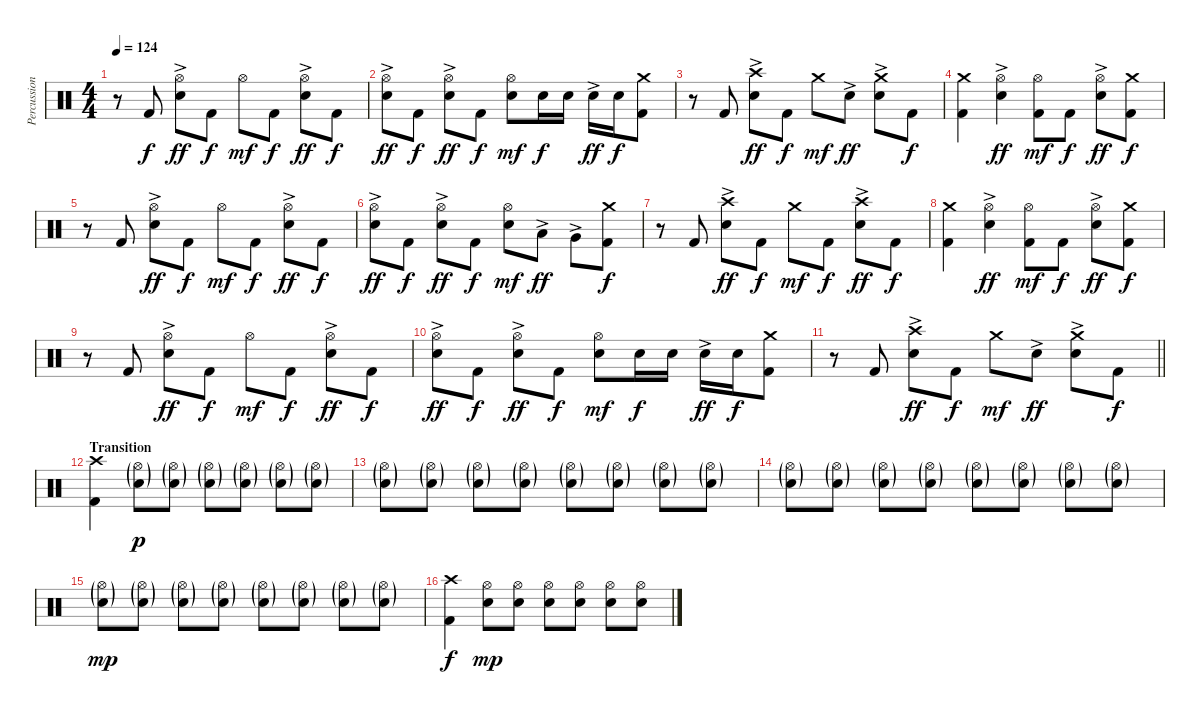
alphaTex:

\track ("Percussion" "Percussion") {instrument percussion}
\staff {score}
\articulation defaults
\ts (4 4)
\tempo 124
\clef neutral
\ks c
r.8{dy f} "Kick (hit) 2".8 ("Hi-Hat (open)" "Electric Snare (hit)"{ac}).8{dy ff} "Kick (hit) 2".8{dy f} "Hi-Hat (open)".8{dy mf} "Kick (hit) 2".8{dy f} ("Hi-Hat (open)" "Electric Snare (hit)"{ac}).8{dy ff} "Kick (hit) 2".8{dy f} |
("Hi-Hat (open)" "Electric Snare (hit)"{ac}).8{dy ff} "Kick (hit) 2".8{dy f} ("Hi-Hat (open)" "Electric Snare (hit)"{ac}).8{dy ff} "Kick (hit) 2".8{dy f} ("Hi-Hat (open)" "Electric Snare (hit)").8{dy mf} "Electric Snare (hit)".16{dy f} "Electric Snare (hit)".16 "Electric Snare (hit)"{ac}.16{dy ff} "Electric Snare (hit)".16{dy f} ("Crash medium (hit)" "Kick (hit) 2").8 |
r.8 "Kick (hit) 2".8 ("Crash high (hit)" "Electric Snare (hit)"{ac}).8{dy ff} "Kick (hit) 2".8{dy f} "Crash medium (hit)".8{dy mf} "Electric Snare (hit)"{ac}.8{dy ff} ("Crash medium (hit)" "Electric Snare (hit)"{ac}).8 "Kick (hit) 2".8{dy f} |
("Crash medium (hit)" "Kick (hit) 2").4 ("Hi-Hat (open)" "Electric Snare (hit)"{ac}).4{dy ff} ("Hi-Hat (open)" "Kick (hit) 2").8{dy mf} "Kick (hit) 2".8{dy f} ("Hi-Hat (open)" "Electric Snare (hit)"{ac}).8{dy ff} ("Crash medium (hit)" "Kick (hit) 2").8{dy f} |
r.8 "Kick (hit) 2".8 ("Hi-Hat (open)" "Electric Snare (hit)"{ac}).8{dy ff} "Kick (hit) 2".8{dy f} "Hi-Hat (open)".8{dy mf} "Kick (hit) 2".8{dy f} ("Hi-Hat (open)" "Electric Snare (hit)"{ac}).8{dy ff} "Kick (hit) 2".8{dy f} |
("Hi-Hat (open)" "Electric Snare (hit)"{ac}).8{dy ff} "Kick (hit) 2".8{dy f} ("Hi-Hat (open)" "Electric Snare (hit)"{ac}).8{dy ff} "Kick (hit) 2".8{dy f} ("Hi-Hat (open)" "Electric Snare (hit)").8{dy mf} "Low Tom (hit)"{ac}.8{dy ff} "Very Low Tom (hit)"{ac}.8 ("Crash medium (hit)" "Kick (hit) 2").8{dy f} |
r.8 "Kick (hit) 2".8 ("Crash high (hit)" "Electric Snare (hit)"{ac}).8{dy ff} "Kick (hit) 2".8{dy f} "Crash medium (hit)".8{dy mf} "Kick (hit) 2".8{dy f} ("Crash high (hit)" "Electric Snare (hit)"{ac}).8{dy ff} "Kick (hit) 2".8{dy f} |
("Crash medium (hit)" "Kick (hit) 2").4 ("Hi-Hat (open)" "Electric Snare (hit)"{ac}).4{dy ff} ("Hi-Hat (open)" "Kick (hit) 2").8{dy mf} "Kick (hit) 2".8{dy f} ("Hi-Hat (open)" "Electric Snare (hit)"{ac}).8{dy ff} ("Crash medium (hit)" "Kick (hit) 2").8{dy f} |
r.8 "Kick (hit) 2".8 ("Hi-Hat (open)" "Electric Snare (hit)"{ac}).8{dy ff} "Kick (hit) 2".8{dy f} "Hi-Hat (open)".8{dy mf} "Kick (hit) 2".8{dy f} ("Hi-Hat (open)" "Electric Snare (hit)"{ac}).8{dy ff} "Kick (hit) 2".8{dy f} |
("Hi-Hat (open)" "Electric Snare (hit)"{ac}).8{dy ff} "Kick (hit) 2".8{dy f} ("Hi-Hat (open)" "Electric Snare (hit)"{ac}).8{dy ff} "Kick (hit) 2".8{dy f} ("Hi-Hat (open)" "Electric Snare (hit)").8{dy mf} "Electric Snare (hit)".16{dy f} "Electric Snare (hit)".16 "Electric Snare (hit)"{ac}.16{dy ff} "Electric Snare (hit)".16{dy f} ("Crash medium (hit)" "Kick (hit) 2").8 |
\barLineRight lightlight
r.8 "Kick (hit) 2".8 ("Crash high (hit)" "Electric Snare (hit)"{ac}).8{dy ff} "Kick (hit) 2".8{dy f} "Crash medium (hit)".8{dy mf} "Electric Snare (hit)"{ac}.8{dy ff} ("Crash medium (hit)" "Electric Snare (hit)"{ac}).8 "Kick (hit) 2".8{dy f} |
\section ("" "Transition")
("Crash high (hit)" "Kick (hit) 2").4 ("Hi-Hat (open)"{g} "Electric Snare (hit)"{g}).8{dy p} ("Hi-Hat (open)"{g} "Electric Snare (hit)"{g}).8 ("Hi-Hat (open)"{g} "Electric Snare (hit)"{g}).8 ("Hi-Hat (open)"{g} "Electric Snare (hit)"{g}).8 ("Hi-Hat (open)"{g} "Electric Snare (hit)"{g}).8 ("Hi-Hat (open)"{g} "Electric Snare (hit)"{g}).8 |
("Hi-Hat (open)"{g} "Electric Snare (hit)"{g}).8 ("Hi-Hat (open)"{g} "Electric Snare (hit)"{g}).8 ("Hi-Hat (open)"{g} "Electric Snare (hit)"{g}).8 ("Hi-Hat (open)"{g} "Electric Snare (hit)"{g}).8 ("Hi-Hat (open)"{g} "Electric Snare (hit)"{g}).8 ("Hi-Hat (open)"{g} "Electric Snare (hit)"{g}).8 ("Hi-Hat (open)"{g} "Electric Snare (hit)"{g}).8 ("Hi-Hat (open)"{g} "Electric Snare (hit)"{g}).8 |
("Hi-Hat (open)"{g} "Electric Snare (hit)"{g}).8 ("Hi-Hat (open)"{g} "Electric Snare (hit)"{g}).8 ("Hi-Hat (open)"{g} "Electric Snare (hit)"{g}).8 ("Hi-Hat (open)"{g} "Electric Snare (hit)"{g}).8 ("Hi-Hat (open)"{g} "Electric Snare (hit)"{g}).8 ("Hi-Hat (open)"{g} "Electric Snare (hit)"{g}).8 ("Hi-Hat (open)"{g} "Electric Snare (hit)"{g}).8 ("Hi-Hat (open)"{g} "Electric Snare (hit)"{g}).8 |
("Hi-Hat (open)"{g} "Electric Snare (hit)"{g}).8{dy mp} ("Hi-Hat (open)"{g} "Electric Snare (hit)"{g}).8 ("Hi-Hat (open)"{g} "Electric Snare (hit)"{g}).8 ("Hi-Hat (open)"{g} "Electric Snare (hit)"{g}).8 ("Hi-Hat (open)"{g} "Electric Snare (hit)"{g}).8 ("Hi-Hat (open)"{g} "Electric Snare (hit)"{g}).8 ("Hi-Hat (open)"{g} "Electric Snare (hit)"{g}).8 ("Hi-Hat (open)"{g} "Electric Snare (hit)"{g}).8 |
("Crash high (hit)" "Kick (hit) 2").4{dy f} ("Hi-Hat (open)" "Electric Snare (hit)").8{dy mp} ("Hi-Hat (open)" "Electric Snare (hit)").8 ("Hi-Hat (open)" "Electric Snare (hit)").8 ("Hi-Hat (open)" "Electric Snare (hit)").8 ("Hi-Hat (open)" "Electric Snare (hit)").8 ("Hi-Hat (open)" "Electric Snare (hit)").8
